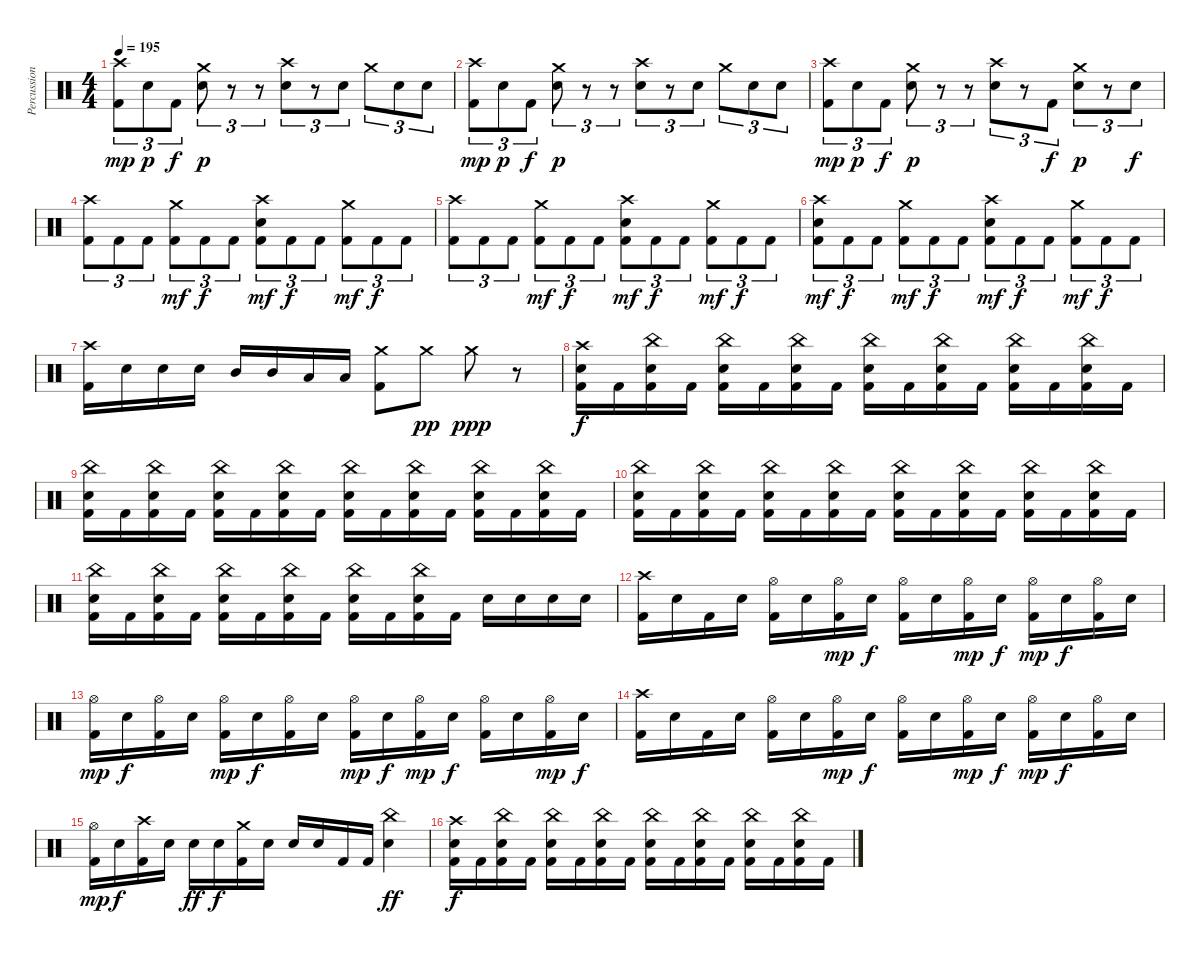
\track ("Percussion" "Percussion") {instrument percussion}
\staff {score}
\articulation defaults
\ts (4 4)
\tempo 195
\clef neutral
\ks c
("Crash high (hit)" "Kick (hit) 2").8{tu (3 2) dy mp} "Snare (hit) 2".8{tu (3 2) dy p} "Kick (hit) 2".8{tu (3 2) dy f} ("Crash medium (hit)" "Snare (hit) 2").8{tu (3 2) dy p} r.8{tu (3 2)} r.8{tu (3 2)} ("Crash high (hit)" "Snare (hit) 2").8{tu (3 2)} r.8{tu (3 2)} "Snare (hit) 2".8{tu (3 2)} "Crash medium (hit)".8{tu (3 2)} "Snare (hit) 2".8{tu (3 2)} "Snare (hit) 2".8{tu (3 2)} |
("Crash high (hit)" "Kick (hit) 2").8{tu (3 2) dy mp} "Snare (hit) 2".8{tu (3 2) dy p} "Kick (hit) 2".8{tu (3 2) dy f} ("Crash medium (hit)" "Snare (hit) 2").8{tu (3 2) dy p} r.8{tu (3 2)} r.8{tu (3 2)} ("Crash high (hit)" "Snare (hit) 2").8{tu (3 2)} r.8{tu (3 2)} "Snare (hit) 2".8{tu (3 2)} "Crash medium (hit)".8{tu (3 2)} "Snare (hit) 2".8{tu (3 2)} "Snare (hit) 2".8{tu (3 2)} |
("Crash high (hit)" "Kick (hit) 2").8{tu (3 2) dy mp} "Snare (hit) 2".8{tu (3 2) dy p} "Kick (hit) 2".8{tu (3 2) dy f} ("Crash medium (hit)" "Snare (hit) 2").8{tu (3 2) dy p} r.8{tu (3 2)} r.8{tu (3 2)} ("Crash high (hit)" "Snare (hit) 2").8{tu (3 2)} r.8{tu (3 2)} "Kick (hit) 2".8{tu (3 2) dy f} ("Crash medium (hit)" "Snare (hit) 2").8{tu (3 2) dy p} r.8{tu (3 2)} "Snare (hit) 2".8{tu (3 2) dy f} |
("Crash high (hit)" "Kick (hit) 2").8{tu (3 2)} "Kick (hit) 2".8{tu (3 2)} "Kick (hit) 2".8{tu (3 2)} ("Crash medium (hit)" "Kick (hit) 2").8{tu (3 2) dy mf} "Kick (hit) 2".8{tu (3 2) dy f} "Kick (hit) 2".8{tu (3 2)} ("Crash high (hit)" "Snare (hit) 2" "Kick (hit) 2").8{tu (3 2) dy mf} "Kick (hit) 2".8{tu (3 2) dy f} "Kick (hit) 2".8{tu (3 2)} ("Crash medium (hit)" "Kick (hit) 2").8{tu (3 2) dy mf} "Kick (hit) 2".8{tu (3 2) dy f} "Kick (hit) 2".8{tu (3 2)} |
("Crash high (hit)" "Kick (hit) 2").8{tu (3 2)} "Kick (hit) 2".8{tu (3 2)} "Kick (hit) 2".8{tu (3 2)} ("Crash medium (hit)" "Kick (hit) 2").8{tu (3 2) dy mf} "Kick (hit) 2".8{tu (3 2) dy f} "Kick (hit) 2".8{tu (3 2)} ("Crash high (hit)" "Snare (hit) 2" "Kick (hit) 2").8{tu (3 2) dy mf} "Kick (hit) 2".8{tu (3 2) dy f} "Kick (hit) 2".8{tu (3 2)} ("Crash medium (hit)" "Kick (hit) 2").8{tu (3 2) dy mf} "Kick (hit) 2".8{tu (3 2) dy f} "Kick (hit) 2".8{tu (3 2)} |
("Crash high (hit)" "Snare (hit) 2" "Kick (hit) 2").8{tu (3 2) dy mf} "Kick (hit) 2".8{tu (3 2) dy f} "Kick (hit) 2".8{tu (3 2)} ("Crash medium (hit)" "Kick (hit) 2").8{tu (3 2) dy mf} "Kick (hit) 2".8{tu (3 2) dy f} "Kick (hit) 2".8{tu (3 2)} ("Crash high (hit)" "Snare (hit) 2" "Kick (hit) 2").8{tu (3 2) dy mf} "Kick (hit) 2".8{tu (3 2) dy f} "Kick (hit) 2".8{tu (3 2)} ("Crash medium (hit)" "Kick (hit) 2").8{tu (3 2) dy mf} "Kick (hit) 2".8{tu (3 2) dy f} "Kick (hit) 2".8{tu (3 2)} |
("Crash high (hit)" "Kick (hit) 2").16 "Snare (hit) 2".16 "Snare (hit) 2".16 "Snare (hit) 2".16 "Mid Tom (hit)".16 "Mid Tom (hit)".16 "Low Tom (hit)".16 "Low Tom (hit)".16 ("Crash medium (hit)" "Kick (hit) 2").8 "Crash medium (hit)".8{dy pp} "Crash medium (hit)".8{dy ppp} r.8 |
("Crash high (hit)" "Snare (hit) 2" "Kick (hit) 2").16{dy f} "Kick (hit) 2".16 ("China (hit)" "Snare (hit) 2" "Kick (hit) 2").16 "Kick (hit) 2".16 ("China (hit)" "Snare (hit) 2" "Kick (hit) 2").16 "Kick (hit) 2".16 ("China (hit)" "Snare (hit) 2" "Kick (hit) 2").16 "Kick (hit) 2".16 ("China (hit)" "Snare (hit) 2" "Kick (hit) 2").16 "Kick (hit) 2".16 ("China (hit)" "Snare (hit) 2" "Kick (hit) 2").16 "Kick (hit) 2".16 ("China (hit)" "Snare (hit) 2" "Kick (hit) 2").16 "Kick (hit) 2".16 ("China (hit)" "Snare (hit) 2" "Kick (hit) 2").16 "Kick (hit) 2".16 |
("China (hit)" "Snare (hit) 2" "Kick (hit) 2").16 "Kick (hit) 2".16 ("China (hit)" "Snare (hit) 2" "Kick (hit) 2").16 "Kick (hit) 2".16 ("China (hit)" "Snare (hit) 2" "Kick (hit) 2").16 "Kick (hit) 2".16 ("China (hit)" "Snare (hit) 2" "Kick (hit) 2").16 "Kick (hit) 2".16 ("China (hit)" "Snare (hit) 2" "Kick (hit) 2").16 "Kick (hit) 2".16 ("China (hit)" "Snare (hit) 2" "Kick (hit) 2").16 "Kick (hit) 2".16 ("China (hit)" "Snare (hit) 2" "Kick (hit) 2").16 "Kick (hit) 2".16 ("China (hit)" "Snare (hit) 2" "Kick (hit) 2").16 "Kick (hit) 2".16 |
("China (hit)" "Snare (hit) 2" "Kick (hit) 2").16 "Kick (hit) 2".16 ("China (hit)" "Snare (hit) 2" "Kick (hit) 2").16 "Kick (hit) 2".16 ("China (hit)" "Snare (hit) 2" "Kick (hit) 2").16 "Kick (hit) 2".16 ("China (hit)" "Snare (hit) 2" "Kick (hit) 2").16 "Kick (hit) 2".16 ("China (hit)" "Snare (hit) 2" "Kick (hit) 2").16 "Kick (hit) 2".16 ("China (hit)" "Snare (hit) 2" "Kick (hit) 2").16 "Kick (hit) 2".16 ("China (hit)" "Snare (hit) 2" "Kick (hit) 2").16 "Kick (hit) 2".16 ("China (hit)" "Snare (hit) 2" "Kick (hit) 2").16 "Kick (hit) 2".16 |
("China (hit)" "Snare (hit) 2" "Kick (hit) 2").16 "Kick (hit) 2".16 ("China (hit)" "Snare (hit) 2" "Kick (hit) 2").16 "Kick (hit) 2".16 ("China (hit)" "Snare (hit) 2" "Kick (hit) 2").16 "Kick (hit) 2".16 ("China (hit)" "Snare (hit) 2" "Kick (hit) 2").16 "Kick (hit) 2".16 ("China (hit)" "Snare (hit) 2" "Kick (hit) 2").16 "Kick (hit) 2".16 ("China (hit)" "Snare (hit) 2" "Kick (hit) 2").16 "Kick (hit) 2".16 "Snare (hit) 2".16 "Snare (hit) 2".16 "Snare (hit) 2".16 "Snare (hit) 2".16 |
("Crash high (hit)" "Kick (hit) 2").16 "Snare (hit) 2".16 "Kick (hit) 2".16 "Snare (hit) 2".16 ("Hi-Hat (open)" "Kick (hit) 2").16 "Snare (hit) 2".16 ("Hi-Hat (open)" "Kick (hit) 2").16{dy mp} "Snare (hit) 2".16{dy f} ("Hi-Hat (open)" "Kick (hit) 2").16 "Snare (hit) 2".16 ("Hi-Hat (open)" "Kick (hit) 2").16{dy mp} "Snare (hit) 2".16{dy f} ("Hi-Hat (open)" "Kick (hit) 2").16{dy mp} "Snare (hit) 2".16{dy f} ("Hi-Hat (open)" "Kick (hit) 2").16 "Snare (hit) 2".16 |
("Hi-Hat (open)" "Kick (hit) 2").16{dy mp} "Snare (hit) 2".16{dy f} ("Hi-Hat (open)" "Kick (hit) 2").16 "Snare (hit) 2".16 ("Hi-Hat (open)" "Kick (hit) 2").16{dy mp} "Snare (hit) 2".16{dy f} ("Hi-Hat (open)" "Kick (hit) 2").16 "Snare (hit) 2".16 ("Hi-Hat (open)" "Kick (hit) 2").16{dy mp} "Snare (hit) 2".16{dy f} ("Hi-Hat (open)" "Kick (hit) 2").16{dy mp} "Snare (hit) 2".16{dy f} ("Hi-Hat (open)" "Kick (hit) 2").16 "Snare (hit) 2".16 ("Hi-Hat (open)" "Kick (hit) 2").16{dy mp} "Snare (hit) 2".16{dy f} |
("Crash high (hit)" "Kick (hit) 2").16 "Snare (hit) 2".16 "Kick (hit) 2".16 "Snare (hit) 2".16 ("Hi-Hat (open)" "Kick (hit) 2").16 "Snare (hit) 2".16 ("Hi-Hat (open)" "Kick (hit) 2").16{dy mp} "Snare (hit) 2".16{dy f} ("Hi-Hat (open)" "Kick (hit) 2").16 "Snare (hit) 2".16 ("Hi-Hat (open)" "Kick (hit) 2").16{dy mp} "Snare (hit) 2".16{dy f} ("Hi-Hat (open)" "Kick (hit) 2").16{dy mp} "Snare (hit) 2".16{dy f} ("Hi-Hat (open)" "Kick (hit) 2").16 "Snare (hit) 2".16 |
("Hi-Hat (open)" "Kick (hit) 2").16{dy mp} "Snare (hit) 2".16{dy f} ("Crash high (hit)" "Kick (hit) 2").16 "Snare (hit) 2".16 "Snare (hit) 2".16{dy ff} "Snare (hit) 2".16{dy f} ("Crash medium (hit)" "Kick (hit) 2").16 "Snare (hit) 2".16 "Snare (hit) 2".16 "Snare (hit) 2".16 "Kick (hit) 2".16 "Kick (hit) 2".16 ("China (hit)" "Snare (hit) 2").4{dy ff} |
("Crash high (hit)" "Snare (hit) 2" "Kick (hit) 2").16{dy f} "Kick (hit) 2".16 ("China (hit)" "Snare (hit) 2" "Kick (hit) 2").16 "Kick (hit) 2".16 ("China (hit)" "Snare (hit) 2" "Kick (hit) 2").16 "Kick (hit) 2".16 ("China (hit)" "Snare (hit) 2" "Kick (hit) 2").16 "Kick (hit) 2".16 ("China (hit)" "Snare (hit) 2" "Kick (hit) 2").16 "Kick (hit) 2".16 ("China (hit)" "Snare (hit) 2" "Kick (hit) 2").16 "Kick (hit) 2".16 ("China (hit)" "Snare (hit) 2" "Kick (hit) 2").16 "Kick (hit) 2".16 ("China (hit)" "Snare (hit) 2" "Kick (hit) 2").16 "Kick (hit) 2".16
